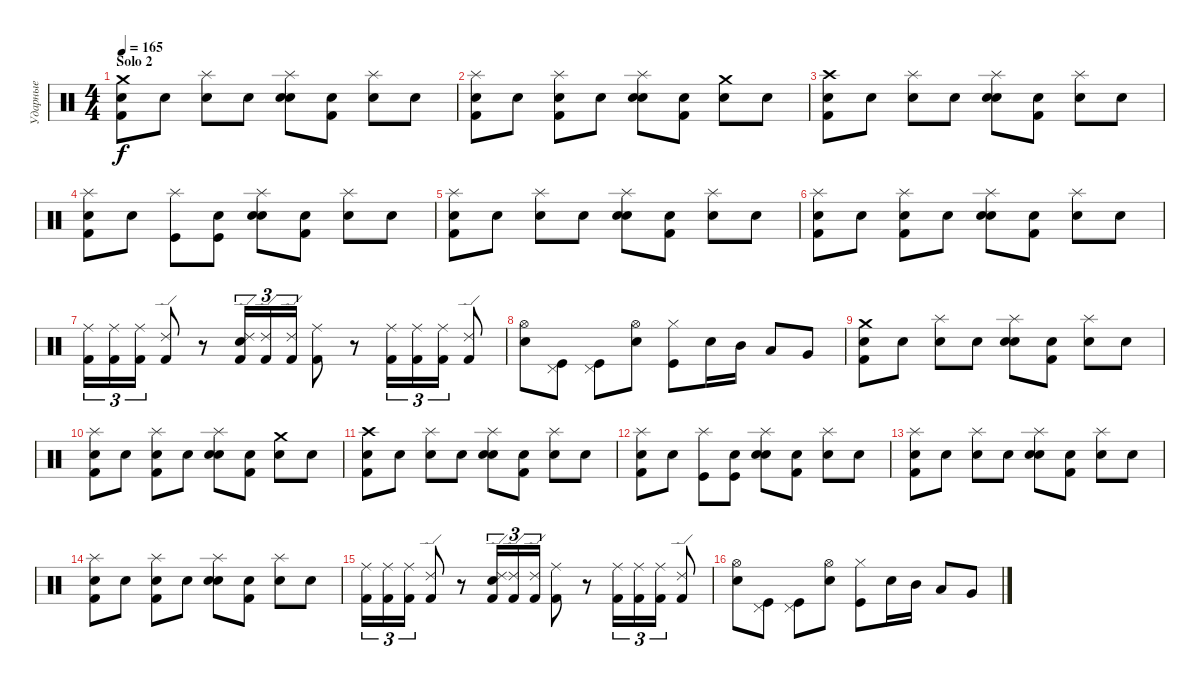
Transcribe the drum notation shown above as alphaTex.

\track ("Ударные" "Ударные") {instrument percussion}
\staff {score}
\articulation defaults
\ts (4 4)
\section ("" "Solo 2")
\tempo 165
\clef neutral
\ks c
("Crash medium (hit)" "Kick (hit) 2" "Snare (hit)").8{dy f} "Snare (hit)".8 ("Splash (hit)" "Snare (hit)").8 "Snare (hit)".8 ("Snare (hit) 2" "Splash (hit)" "Snare (hit)").8 ("Kick (hit) 2" "Snare (hit)").8 ("Splash (hit)" "Snare (hit)").8 "Snare (hit)".8 |
("Splash (hit)" "Kick (hit) 2" "Snare (hit)").8 "Snare (hit)".8 ("Splash (hit)" "Kick (hit) 2" "Snare (hit)").8 "Snare (hit)".8 ("Snare (hit) 2" "Splash (hit)" "Snare (hit)").8 ("Kick (hit) 2" "Snare (hit)").8 ("Crash medium (hit)" "Snare (hit)").8 "Snare (hit)".8 |
("Crash high (hit)" "Kick (hit) 2" "Snare (hit)").8 "Snare (hit)".8 ("Splash (hit)" "Snare (hit)").8 "Snare (hit)".8 ("Snare (hit) 2" "Splash (hit)" "Snare (hit)").8 ("Kick (hit) 2" "Snare (hit)").8 ("Splash (hit)" "Snare (hit)").8 "Snare (hit)".8 |
("Splash (hit)" "Kick (hit) 2" "Snare (hit)").8 "Snare (hit)".8 ("Splash (hit)" "Kick (hit)").8 ("Kick (hit)" "Snare (hit)").8 ("Snare (hit) 2" "Splash (hit)" "Snare (hit)").8 ("Kick (hit) 2" "Snare (hit)").8 ("Splash (hit)" "Snare (hit)").8 "Snare (hit)".8 |
("Splash (hit)" "Kick (hit) 2" "Snare (hit)").8 "Snare (hit)".8 ("Splash (hit)" "Snare (hit)").8 "Snare (hit)".8 ("Snare (hit) 2" "Splash (hit)" "Snare (hit)").8 ("Kick (hit) 2" "Snare (hit)").8 ("Splash (hit)" "Snare (hit)").8 "Snare (hit)".8 |
("Splash (hit)" "Kick (hit) 2" "Snare (hit)").8 "Snare (hit)".8 ("Splash (hit)" "Kick (hit) 2" "Snare (hit)").8 "Snare (hit)".8 ("Snare (hit) 2" "Splash (hit)" "Snare (hit)").8 ("Kick (hit) 2" "Snare (hit)").8 ("Splash (hit)" "Snare (hit)").8 "Snare (hit)".8 |
("Ride (middle)" "Kick (hit) 2").16{tu (3 2)} ("Ride (middle)" "Kick (hit) 2").16{tu (3 2)} ("Ride (middle)" "Kick (hit) 2").16{tu (3 2)} ("Ride (edge) 2" "Kick (hit) 2").8 r.8 ("Snare (hit) 2" "Ride (edge) 2" "Kick (hit) 2").16{tu (3 2)} ("Ride (edge) 2" "Kick (hit) 2").16{tu (3 2)} ("Ride (edge) 2" "Kick (hit) 2").16{tu (3 2)} ("Ride (middle)" "Kick (hit) 2").8 r.8 ("Ride (middle)" "Kick (hit) 2").16{tu (3 2)} ("Ride (middle)" "Kick (hit) 2").16{tu (3 2)} ("Ride (middle)" "Kick (hit) 2").16{tu (3 2)} ("Ride (edge) 2" "Kick (hit) 2").8 |
("Snare (hit) 2" "Hi-Hat (open)").8 ("Pedal Hi-Hat (hit)" "Kick (hit)").8 ("Pedal Hi-Hat (hit)" "Kick (hit)").8 ("Snare (hit) 2" "Hi-Hat (open)").8 ("Hi-Hat (closed)" "Kick (hit)").8 "Snare (hit) 2".16 "Mid Tom (hit)".16 "Low Tom (hit)".8 "Very Low Tom (hit)".8 |
("Crash medium (hit)" "Kick (hit) 2" "Snare (hit)").8 "Snare (hit)".8 ("Splash (hit)" "Snare (hit)").8 "Snare (hit)".8 ("Snare (hit) 2" "Splash (hit)" "Snare (hit)").8 ("Kick (hit) 2" "Snare (hit)").8 ("Splash (hit)" "Snare (hit)").8 "Snare (hit)".8 |
("Splash (hit)" "Kick (hit) 2" "Snare (hit)").8 "Snare (hit)".8 ("Splash (hit)" "Kick (hit) 2" "Snare (hit)").8 "Snare (hit)".8 ("Snare (hit) 2" "Splash (hit)" "Snare (hit)").8 ("Kick (hit) 2" "Snare (hit)").8 ("Crash medium (hit)" "Snare (hit)").8 "Snare (hit)".8 |
("Crash high (hit)" "Kick (hit) 2" "Snare (hit)").8 "Snare (hit)".8 ("Splash (hit)" "Snare (hit)").8 "Snare (hit)".8 ("Snare (hit) 2" "Splash (hit)" "Snare (hit)").8 ("Kick (hit) 2" "Snare (hit)").8 ("Splash (hit)" "Snare (hit)").8 "Snare (hit)".8 |
("Splash (hit)" "Kick (hit) 2" "Snare (hit)").8 "Snare (hit)".8 ("Splash (hit)" "Kick (hit)").8 ("Kick (hit)" "Snare (hit)").8 ("Snare (hit) 2" "Splash (hit)" "Snare (hit)").8 ("Kick (hit) 2" "Snare (hit)").8 ("Splash (hit)" "Snare (hit)").8 "Snare (hit)".8 |
("Splash (hit)" "Kick (hit) 2" "Snare (hit)").8 "Snare (hit)".8 ("Splash (hit)" "Snare (hit)").8 "Snare (hit)".8 ("Snare (hit) 2" "Splash (hit)" "Snare (hit)").8 ("Kick (hit) 2" "Snare (hit)").8 ("Splash (hit)" "Snare (hit)").8 "Snare (hit)".8 |
("Splash (hit)" "Kick (hit) 2" "Snare (hit)").8 "Snare (hit)".8 ("Splash (hit)" "Kick (hit) 2" "Snare (hit)").8 "Snare (hit)".8 ("Snare (hit) 2" "Splash (hit)" "Snare (hit)").8 ("Kick (hit) 2" "Snare (hit)").8 ("Splash (hit)" "Snare (hit)").8 "Snare (hit)".8 |
("Ride (middle)" "Kick (hit) 2").16{tu (3 2)} ("Ride (middle)" "Kick (hit) 2").16{tu (3 2)} ("Ride (middle)" "Kick (hit) 2").16{tu (3 2)} ("Ride (edge) 2" "Kick (hit) 2").8 r.8 ("Snare (hit) 2" "Ride (edge) 2" "Kick (hit) 2").16{tu (3 2)} ("Ride (edge) 2" "Kick (hit) 2").16{tu (3 2)} ("Ride (edge) 2" "Kick (hit) 2").16{tu (3 2)} ("Ride (middle)" "Kick (hit) 2").8 r.8 ("Ride (middle)" "Kick (hit) 2").16{tu (3 2)} ("Ride (middle)" "Kick (hit) 2").16{tu (3 2)} ("Ride (middle)" "Kick (hit) 2").16{tu (3 2)} ("Ride (edge) 2" "Kick (hit) 2").8 |
("Snare (hit) 2" "Hi-Hat (open)").8 ("Pedal Hi-Hat (hit)" "Kick (hit)").8 ("Pedal Hi-Hat (hit)" "Kick (hit)").8 ("Snare (hit) 2" "Hi-Hat (open)").8 ("Hi-Hat (closed)" "Kick (hit)").8 "Snare (hit) 2".16 "Mid Tom (hit)".16 "Low Tom (hit)".8 "Very Low Tom (hit)".8
